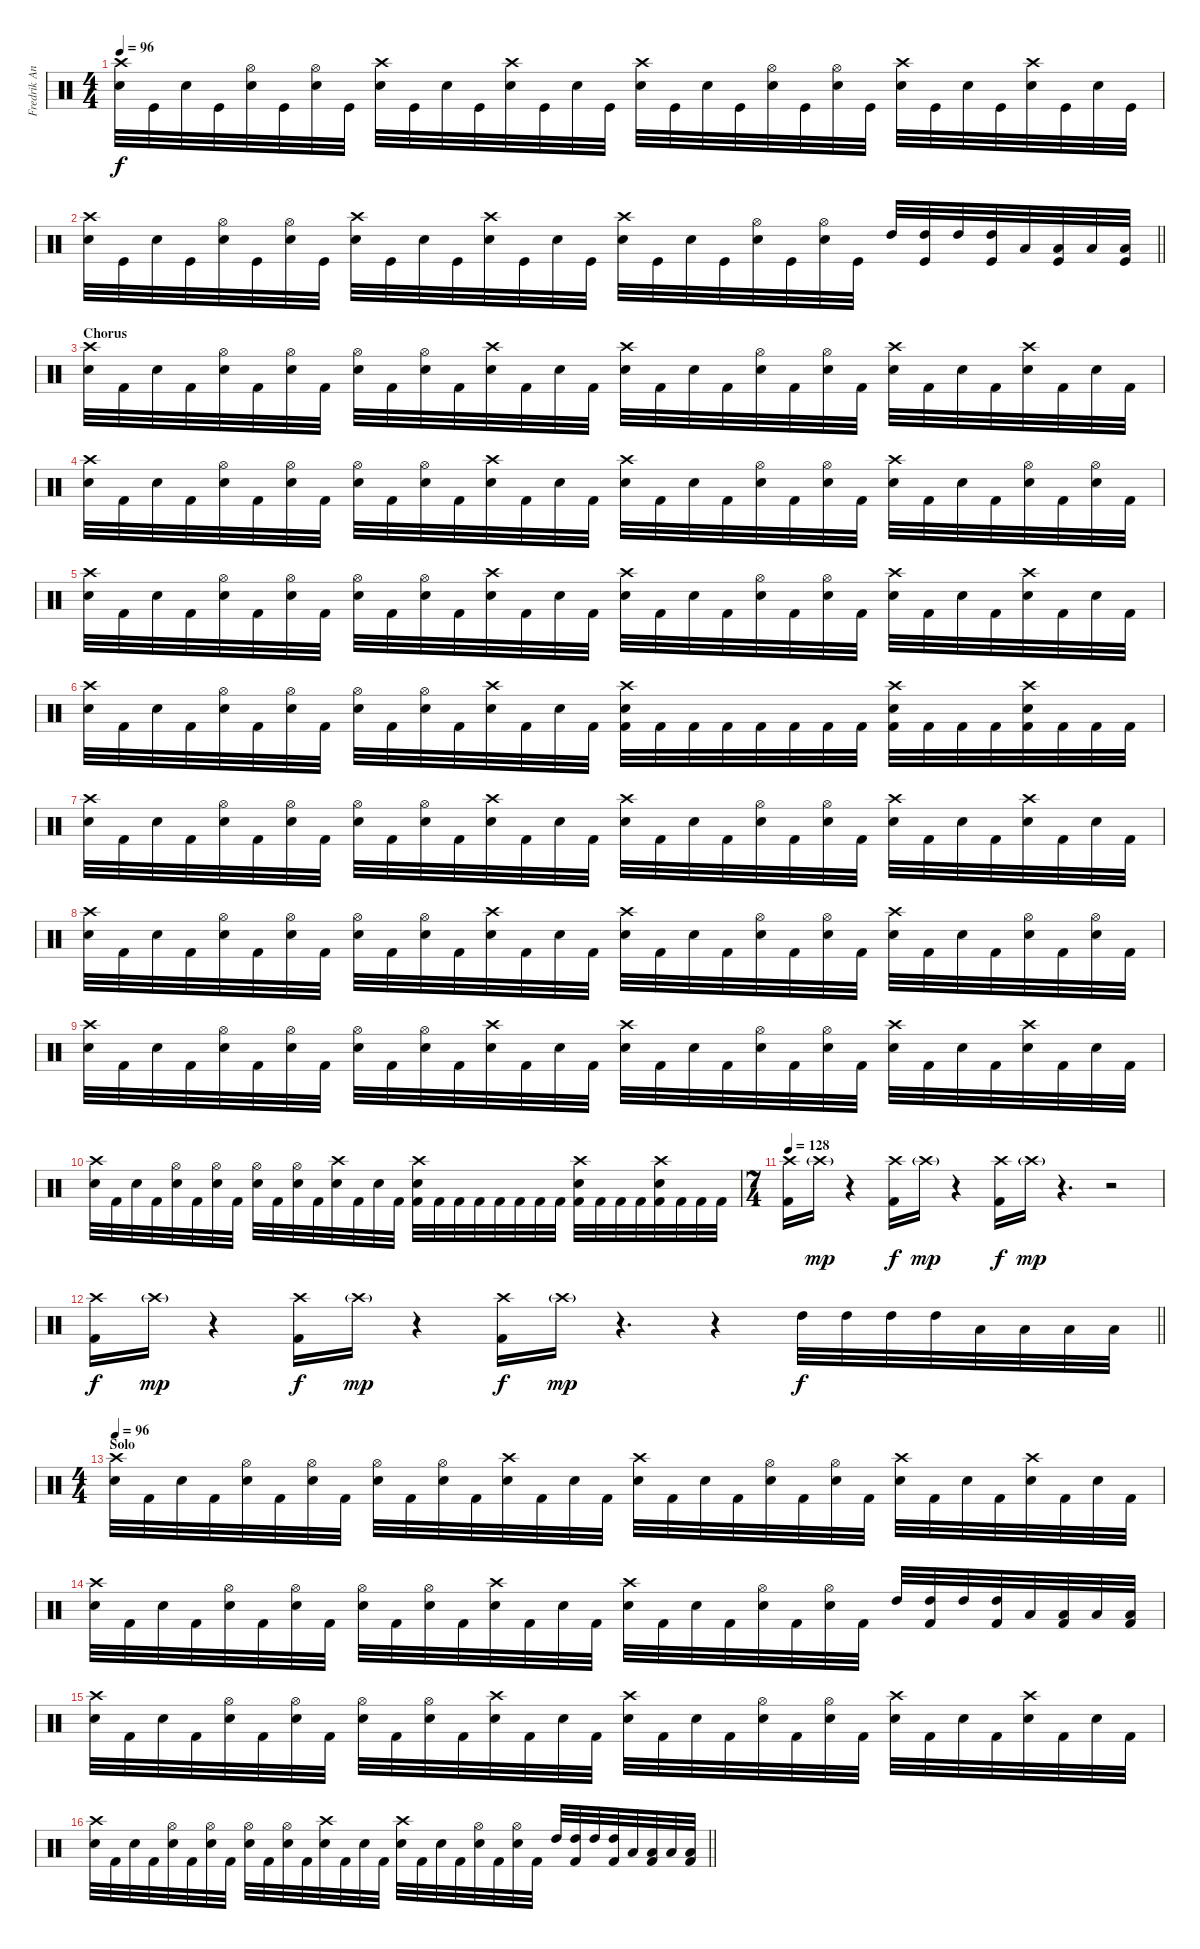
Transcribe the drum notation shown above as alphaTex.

\track ("Fredrik Andersson" "Fredrik An") {instrument percussion}
\staff {score}
\articulation defaults
\ts (4 4)
\tempo 96
\clef neutral
\ks c
("Crash high (hit)" "Snare (hit) 2").32{dy f} "Kick (hit)".32 "Snare (hit) 2".32 "Kick (hit)".32 ("Hi-Hat (open)" "Snare (hit) 2").32 "Kick (hit)".32 ("Hi-Hat (open)" "Snare (hit) 2").32 "Kick (hit)".32 ("Crash high (hit)" "Snare (hit) 2").32 "Kick (hit)".32 "Snare (hit) 2".32 "Kick (hit)".32 ("Crash high (hit)" "Snare (hit) 2").32 "Kick (hit)".32 "Snare (hit) 2".32 "Kick (hit)".32 ("Crash high (hit)" "Snare (hit) 2").32 "Kick (hit)".32 "Snare (hit) 2".32 "Kick (hit)".32 ("Hi-Hat (open)" "Snare (hit) 2").32 "Kick (hit)".32 ("Hi-Hat (open)" "Snare (hit) 2").32 "Kick (hit)".32 ("Crash high (hit)" "Snare (hit) 2").32 "Kick (hit)".32 "Snare (hit) 2".32 "Kick (hit)".32 ("Crash high (hit)" "Snare (hit) 2").32 "Kick (hit)".32 "Snare (hit) 2".32 "Kick (hit)".32 |
\barLineRight lightlight
("Crash high (hit)" "Snare (hit) 2").32 "Kick (hit)".32 "Snare (hit) 2".32 "Kick (hit)".32 ("Hi-Hat (open)" "Snare (hit) 2").32 "Kick (hit)".32 ("Hi-Hat (open)" "Snare (hit) 2").32 "Kick (hit)".32 ("Crash high (hit)" "Snare (hit) 2").32 "Kick (hit)".32 "Snare (hit) 2".32 "Kick (hit)".32 ("Crash high (hit)" "Snare (hit) 2").32 "Kick (hit)".32 "Snare (hit) 2".32 "Kick (hit)".32 ("Crash high (hit)" "Snare (hit) 2").32 "Kick (hit)".32 "Snare (hit) 2".32 "Kick (hit)".32 ("Hi-Hat (open)" "Snare (hit) 2").32 "Kick (hit)".32 ("Hi-Hat (open)" "Snare (hit) 2").32 "Kick (hit)".32 "High Tom (hit)".32 ("High Tom (hit)" "Kick (hit)").32 "High Tom (hit)".32 ("High Tom (hit)" "Kick (hit)").32 "Low Tom (hit)".32 ("Low Tom (hit)" "Kick (hit)").32 "Low Tom (hit)".32 ("Low Tom (hit)" "Kick (hit)").32 |
\section ("" "Chorus")
("Crash high (hit)" "Snare (hit) 2").32 "Kick (hit) 2".32 "Snare (hit) 2".32 "Kick (hit) 2".32 ("Hi-Hat (open)" "Snare (hit) 2").32 "Kick (hit) 2".32 ("Hi-Hat (open)" "Snare (hit) 2").32 "Kick (hit) 2".32 ("Hi-Hat (open)" "Snare (hit) 2").32 "Kick (hit) 2".32 ("Hi-Hat (open)" "Snare (hit) 2").32 "Kick (hit) 2".32 ("Crash high (hit)" "Snare (hit) 2").32 "Kick (hit) 2".32 "Snare (hit) 2".32 "Kick (hit) 2".32 ("Crash high (hit)" "Snare (hit) 2").32 "Kick (hit) 2".32 "Snare (hit) 2".32 "Kick (hit) 2".32 ("Hi-Hat (open)" "Snare (hit) 2").32 "Kick (hit) 2".32 ("Hi-Hat (open)" "Snare (hit) 2").32 "Kick (hit) 2".32 ("Crash high (hit)" "Snare (hit) 2").32 "Kick (hit) 2".32 "Snare (hit) 2".32 "Kick (hit) 2".32 ("Crash high (hit)" "Snare (hit) 2").32 "Kick (hit) 2".32 "Snare (hit) 2".32 "Kick (hit) 2".32 |
("Crash high (hit)" "Snare (hit) 2").32 "Kick (hit) 2".32 "Snare (hit) 2".32 "Kick (hit) 2".32 ("Hi-Hat (open)" "Snare (hit) 2").32 "Kick (hit) 2".32 ("Hi-Hat (open)" "Snare (hit) 2").32 "Kick (hit) 2".32 ("Hi-Hat (open)" "Snare (hit) 2").32 "Kick (hit) 2".32 ("Hi-Hat (open)" "Snare (hit) 2").32 "Kick (hit) 2".32 ("Crash high (hit)" "Snare (hit) 2").32 "Kick (hit) 2".32 "Snare (hit) 2".32 "Kick (hit) 2".32 ("Crash high (hit)" "Snare (hit) 2").32 "Kick (hit) 2".32 "Snare (hit) 2".32 "Kick (hit) 2".32 ("Hi-Hat (open)" "Snare (hit) 2").32 "Kick (hit) 2".32 ("Hi-Hat (open)" "Snare (hit) 2").32 "Kick (hit) 2".32 ("Crash high (hit)" "Snare (hit) 2").32 "Kick (hit) 2".32 "Snare (hit) 2".32 "Kick (hit) 2".32 ("Hi-Hat (open)" "Snare (hit) 2").32 "Kick (hit) 2".32 ("Hi-Hat (open)" "Snare (hit) 2").32 "Kick (hit) 2".32 |
("Crash high (hit)" "Snare (hit) 2").32 "Kick (hit) 2".32 "Snare (hit) 2".32 "Kick (hit) 2".32 ("Hi-Hat (open)" "Snare (hit) 2").32 "Kick (hit) 2".32 ("Hi-Hat (open)" "Snare (hit) 2").32 "Kick (hit) 2".32 ("Hi-Hat (open)" "Snare (hit) 2").32 "Kick (hit) 2".32 ("Hi-Hat (open)" "Snare (hit) 2").32 "Kick (hit) 2".32 ("Crash high (hit)" "Snare (hit) 2").32 "Kick (hit) 2".32 "Snare (hit) 2".32 "Kick (hit) 2".32 ("Crash high (hit)" "Snare (hit) 2").32 "Kick (hit) 2".32 "Snare (hit) 2".32 "Kick (hit) 2".32 ("Hi-Hat (open)" "Snare (hit) 2").32 "Kick (hit) 2".32 ("Hi-Hat (open)" "Snare (hit) 2").32 "Kick (hit) 2".32 ("Crash high (hit)" "Snare (hit) 2").32 "Kick (hit) 2".32 "Snare (hit) 2".32 "Kick (hit) 2".32 ("Crash high (hit)" "Snare (hit) 2").32 "Kick (hit) 2".32 "Snare (hit) 2".32 "Kick (hit) 2".32 |
("Crash high (hit)" "Snare (hit) 2").32 "Kick (hit) 2".32 "Snare (hit) 2".32 "Kick (hit) 2".32 ("Hi-Hat (open)" "Snare (hit) 2").32 "Kick (hit) 2".32 ("Hi-Hat (open)" "Snare (hit) 2").32 "Kick (hit) 2".32 ("Hi-Hat (open)" "Snare (hit) 2").32 "Kick (hit) 2".32 ("Hi-Hat (open)" "Snare (hit) 2").32 "Kick (hit) 2".32 ("Crash high (hit)" "Snare (hit) 2").32 "Kick (hit) 2".32 "Snare (hit) 2".32 "Kick (hit) 2".32 ("Crash high (hit)" "Snare (hit) 2" "Kick (hit) 2").32 "Kick (hit) 2".32 "Kick (hit) 2".32 "Kick (hit) 2".32 "Kick (hit) 2".32 "Kick (hit) 2".32 "Kick (hit) 2".32 "Kick (hit) 2".32 ("Crash high (hit)" "Snare (hit) 2" "Kick (hit) 2").32 "Kick (hit) 2".32 "Kick (hit) 2".32 "Kick (hit) 2".32 ("Crash high (hit)" "Snare (hit) 2" "Kick (hit) 2").32 "Kick (hit) 2".32 "Kick (hit) 2".32 "Kick (hit) 2".32 |
("Crash high (hit)" "Snare (hit) 2").32 "Kick (hit) 2".32 "Snare (hit) 2".32 "Kick (hit) 2".32 ("Hi-Hat (open)" "Snare (hit) 2").32 "Kick (hit) 2".32 ("Hi-Hat (open)" "Snare (hit) 2").32 "Kick (hit) 2".32 ("Hi-Hat (open)" "Snare (hit) 2").32 "Kick (hit) 2".32 ("Hi-Hat (open)" "Snare (hit) 2").32 "Kick (hit) 2".32 ("Crash high (hit)" "Snare (hit) 2").32 "Kick (hit) 2".32 "Snare (hit) 2".32 "Kick (hit) 2".32 ("Crash high (hit)" "Snare (hit) 2").32 "Kick (hit) 2".32 "Snare (hit) 2".32 "Kick (hit) 2".32 ("Hi-Hat (open)" "Snare (hit) 2").32 "Kick (hit) 2".32 ("Hi-Hat (open)" "Snare (hit) 2").32 "Kick (hit) 2".32 ("Crash high (hit)" "Snare (hit) 2").32 "Kick (hit) 2".32 "Snare (hit) 2".32 "Kick (hit) 2".32 ("Crash high (hit)" "Snare (hit) 2").32 "Kick (hit) 2".32 "Snare (hit) 2".32 "Kick (hit) 2".32 |
("Crash high (hit)" "Snare (hit) 2").32 "Kick (hit) 2".32 "Snare (hit) 2".32 "Kick (hit) 2".32 ("Hi-Hat (open)" "Snare (hit) 2").32 "Kick (hit) 2".32 ("Hi-Hat (open)" "Snare (hit) 2").32 "Kick (hit) 2".32 ("Hi-Hat (open)" "Snare (hit) 2").32 "Kick (hit) 2".32 ("Hi-Hat (open)" "Snare (hit) 2").32 "Kick (hit) 2".32 ("Crash high (hit)" "Snare (hit) 2").32 "Kick (hit) 2".32 "Snare (hit) 2".32 "Kick (hit) 2".32 ("Crash high (hit)" "Snare (hit) 2").32 "Kick (hit) 2".32 "Snare (hit) 2".32 "Kick (hit) 2".32 ("Hi-Hat (open)" "Snare (hit) 2").32 "Kick (hit) 2".32 ("Hi-Hat (open)" "Snare (hit) 2").32 "Kick (hit) 2".32 ("Crash high (hit)" "Snare (hit) 2").32 "Kick (hit) 2".32 "Snare (hit) 2".32 "Kick (hit) 2".32 ("Hi-Hat (open)" "Snare (hit) 2").32 "Kick (hit) 2".32 ("Hi-Hat (open)" "Snare (hit) 2").32 "Kick (hit) 2".32 |
("Crash high (hit)" "Snare (hit) 2").32 "Kick (hit) 2".32 "Snare (hit) 2".32 "Kick (hit) 2".32 ("Hi-Hat (open)" "Snare (hit) 2").32 "Kick (hit) 2".32 ("Hi-Hat (open)" "Snare (hit) 2").32 "Kick (hit) 2".32 ("Hi-Hat (open)" "Snare (hit) 2").32 "Kick (hit) 2".32 ("Hi-Hat (open)" "Snare (hit) 2").32 "Kick (hit) 2".32 ("Crash high (hit)" "Snare (hit) 2").32 "Kick (hit) 2".32 "Snare (hit) 2".32 "Kick (hit) 2".32 ("Crash high (hit)" "Snare (hit) 2").32 "Kick (hit) 2".32 "Snare (hit) 2".32 "Kick (hit) 2".32 ("Hi-Hat (open)" "Snare (hit) 2").32 "Kick (hit) 2".32 ("Hi-Hat (open)" "Snare (hit) 2").32 "Kick (hit) 2".32 ("Crash high (hit)" "Snare (hit) 2").32 "Kick (hit) 2".32 "Snare (hit) 2".32 "Kick (hit) 2".32 ("Crash high (hit)" "Snare (hit) 2").32 "Kick (hit) 2".32 "Snare (hit) 2".32 "Kick (hit) 2".32 |
("Crash high (hit)" "Snare (hit) 2").32 "Kick (hit) 2".32 "Snare (hit) 2".32 "Kick (hit) 2".32 ("Hi-Hat (open)" "Snare (hit) 2").32 "Kick (hit) 2".32 ("Hi-Hat (open)" "Snare (hit) 2").32 "Kick (hit) 2".32 ("Hi-Hat (open)" "Snare (hit) 2").32 "Kick (hit) 2".32 ("Hi-Hat (open)" "Snare (hit) 2").32 "Kick (hit) 2".32 ("Crash high (hit)" "Snare (hit) 2").32 "Kick (hit) 2".32 "Snare (hit) 2".32 "Kick (hit) 2".32 ("Crash high (hit)" "Snare (hit) 2" "Kick (hit) 2").32 "Kick (hit) 2".32 "Kick (hit) 2".32 "Kick (hit) 2".32 "Kick (hit) 2".32 "Kick (hit) 2".32 "Kick (hit) 2".32 "Kick (hit) 2".32 ("Crash high (hit)" "Snare (hit) 2" "Kick (hit) 2").32 "Kick (hit) 2".32 "Kick (hit) 2".32 "Kick (hit) 2".32 ("Crash high (hit)" "Snare (hit) 2" "Kick (hit) 2").32 "Kick (hit) 2".32 "Kick (hit) 2".32 "Kick (hit) 2".32 |
\ts (7 4)
\tempo 128
("Crash high (hit)" "Kick (hit) 2").16 "Crash high (hit)"{g}.16{dy mp} r.4 ("Crash high (hit)" "Kick (hit) 2").16{dy f} "Crash high (hit)"{g}.16{dy mp} r.4 ("Crash high (hit)" "Kick (hit) 2").16{dy f} "Crash high (hit)"{g}.16{dy mp} r.4{d} r.2 |
\barLineRight lightlight
("Crash high (hit)" "Kick (hit) 2").16{dy f} "Crash high (hit)"{g}.16{dy mp} r.4 ("Crash high (hit)" "Kick (hit) 2").16{dy f} "Crash high (hit)"{g}.16{dy mp} r.4 ("Crash high (hit)" "Kick (hit) 2").16{dy f} "Crash high (hit)"{g}.16{dy mp} r.4{d} r.4 "High Tom (hit)".32{dy f} "High Tom (hit)".32 "High Tom (hit)".32 "High Tom (hit)".32 "Low Tom (hit)".32 "Low Tom (hit)".32 "Low Tom (hit)".32 "Low Tom (hit)".32 |
\ts (4 4)
\section ("" "Solo")
\tempo 96
("Crash high (hit)" "Snare (hit) 2").32 "Kick (hit) 2".32 "Snare (hit) 2".32 "Kick (hit) 2".32 ("Hi-Hat (open)" "Snare (hit) 2").32 "Kick (hit) 2".32 ("Hi-Hat (open)" "Snare (hit) 2").32 "Kick (hit) 2".32 ("Hi-Hat (open)" "Snare (hit) 2").32 "Kick (hit) 2".32 ("Hi-Hat (open)" "Snare (hit) 2").32 "Kick (hit) 2".32 ("Crash high (hit)" "Snare (hit) 2").32 "Kick (hit) 2".32 "Snare (hit) 2".32 "Kick (hit) 2".32 ("Crash high (hit)" "Snare (hit) 2").32 "Kick (hit) 2".32 "Snare (hit) 2".32 "Kick (hit) 2".32 ("Hi-Hat (open)" "Snare (hit) 2").32 "Kick (hit) 2".32 ("Hi-Hat (open)" "Snare (hit) 2").32 "Kick (hit) 2".32 ("Crash high (hit)" "Snare (hit) 2").32 "Kick (hit) 2".32 "Snare (hit) 2".32 "Kick (hit) 2".32 ("Crash high (hit)" "Snare (hit) 2").32 "Kick (hit) 2".32 "Snare (hit) 2".32 "Kick (hit) 2".32 |
("Crash high (hit)" "Snare (hit) 2").32 "Kick (hit) 2".32 "Snare (hit) 2".32 "Kick (hit) 2".32 ("Hi-Hat (open)" "Snare (hit) 2").32 "Kick (hit) 2".32 ("Hi-Hat (open)" "Snare (hit) 2").32 "Kick (hit) 2".32 ("Hi-Hat (open)" "Snare (hit) 2").32 "Kick (hit) 2".32 ("Hi-Hat (open)" "Snare (hit) 2").32 "Kick (hit) 2".32 ("Crash high (hit)" "Snare (hit) 2").32 "Kick (hit) 2".32 "Snare (hit) 2".32 "Kick (hit) 2".32 ("Crash high (hit)" "Snare (hit) 2").32 "Kick (hit) 2".32 "Snare (hit) 2".32 "Kick (hit) 2".32 ("Hi-Hat (open)" "Snare (hit) 2").32 "Kick (hit) 2".32 ("Hi-Hat (open)" "Snare (hit) 2").32 "Kick (hit) 2".32 "High Tom (hit)".32 ("High Tom (hit)" "Kick (hit) 2").32 "High Tom (hit)".32 ("High Tom (hit)" "Kick (hit) 2").32 "Low Tom (hit)".32 ("Low Tom (hit)" "Kick (hit) 2").32 "Low Tom (hit)".32 ("Low Tom (hit)" "Kick (hit) 2").32 |
("Crash high (hit)" "Snare (hit) 2").32 "Kick (hit) 2".32 "Snare (hit) 2".32 "Kick (hit) 2".32 ("Hi-Hat (open)" "Snare (hit) 2").32 "Kick (hit) 2".32 ("Hi-Hat (open)" "Snare (hit) 2").32 "Kick (hit) 2".32 ("Hi-Hat (open)" "Snare (hit) 2").32 "Kick (hit) 2".32 ("Hi-Hat (open)" "Snare (hit) 2").32 "Kick (hit) 2".32 ("Crash high (hit)" "Snare (hit) 2").32 "Kick (hit) 2".32 "Snare (hit) 2".32 "Kick (hit) 2".32 ("Crash high (hit)" "Snare (hit) 2").32 "Kick (hit) 2".32 "Snare (hit) 2".32 "Kick (hit) 2".32 ("Hi-Hat (open)" "Snare (hit) 2").32 "Kick (hit) 2".32 ("Hi-Hat (open)" "Snare (hit) 2").32 "Kick (hit) 2".32 ("Crash high (hit)" "Snare (hit) 2").32 "Kick (hit) 2".32 "Snare (hit) 2".32 "Kick (hit) 2".32 ("Crash high (hit)" "Snare (hit) 2").32 "Kick (hit) 2".32 "Snare (hit) 2".32 "Kick (hit) 2".32 |
\barLineRight lightlight
("Crash high (hit)" "Snare (hit) 2").32 "Kick (hit) 2".32 "Snare (hit) 2".32 "Kick (hit) 2".32 ("Hi-Hat (open)" "Snare (hit) 2").32 "Kick (hit) 2".32 ("Hi-Hat (open)" "Snare (hit) 2").32 "Kick (hit) 2".32 ("Hi-Hat (open)" "Snare (hit) 2").32 "Kick (hit) 2".32 ("Hi-Hat (open)" "Snare (hit) 2").32 "Kick (hit) 2".32 ("Crash high (hit)" "Snare (hit) 2").32 "Kick (hit) 2".32 "Snare (hit) 2".32 "Kick (hit) 2".32 ("Crash high (hit)" "Snare (hit) 2").32 "Kick (hit) 2".32 "Snare (hit) 2".32 "Kick (hit) 2".32 ("Hi-Hat (open)" "Snare (hit) 2").32 "Kick (hit) 2".32 ("Hi-Hat (open)" "Snare (hit) 2").32 "Kick (hit) 2".32 "High Tom (hit)".32 ("High Tom (hit)" "Kick (hit) 2").32 "High Tom (hit)".32 ("High Tom (hit)" "Kick (hit) 2").32 "Low Tom (hit)".32 ("Low Tom (hit)" "Kick (hit) 2").32 "Low Tom (hit)".32 ("Low Tom (hit)" "Kick (hit) 2").32
